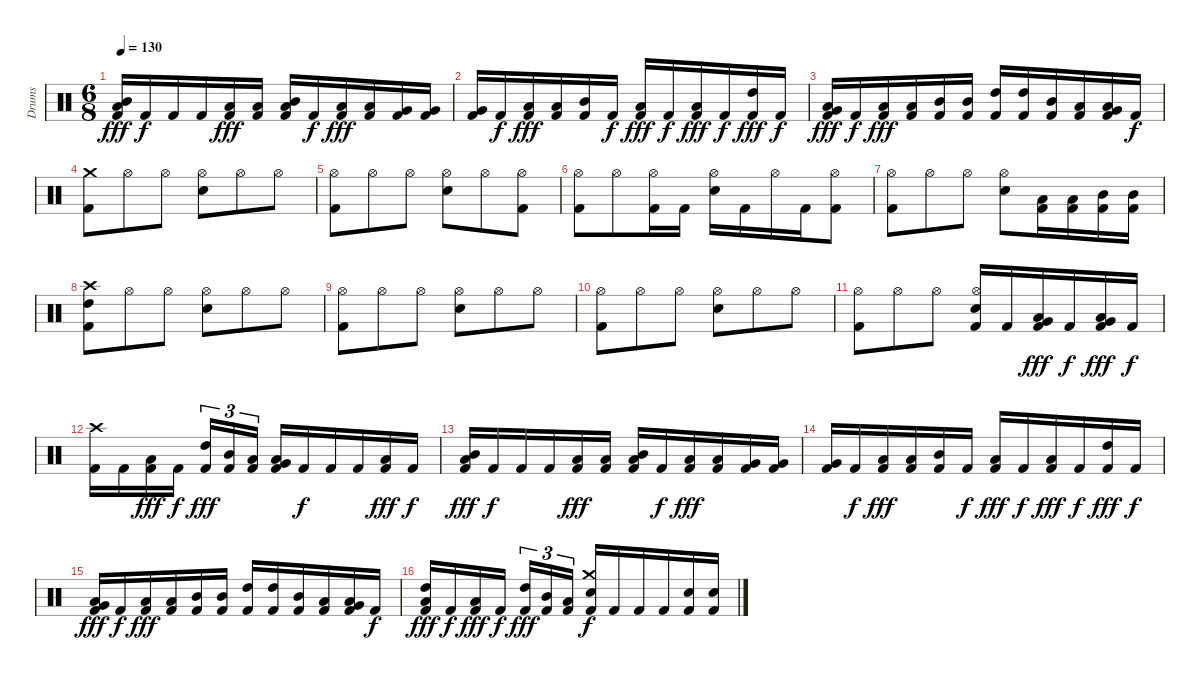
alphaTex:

\track ("Drums" "Drums") {instrument percussion}
\staff {score}
\articulation defaults
\ts (6 8)
\tempo 130
\clef neutral
\ks c
("Kick (hit) 2" "Low Floor Tom (hit)" "Mid Tom (hit)").16{dy fff} "Kick (hit) 2".16{dy f} "Kick (hit) 2".16 "Kick (hit) 2".16 ("Kick (hit) 2" "Low Tom (hit)").16{dy fff} ("Kick (hit) 2" "Low Tom (hit)").16 ("Kick (hit) 2" "Mid Tom (hit)" "Low Tom (hit)").16 "Kick (hit) 2".16{dy f} ("Kick (hit) 2" "Low Tom (hit)").16{dy fff} ("Kick (hit) 2" "Low Tom (hit)").16 ("Kick (hit) 2" "Very Low Tom (hit)").16 ("Kick (hit) 2" "Very Low Tom (hit)").16 |
("Kick (hit) 2" "Very Low Tom (hit)").16 "Kick (hit) 2".16{dy f} ("Kick (hit) 2" "Low Tom (hit)").16{dy fff} ("Kick (hit) 2" "Low Tom (hit)").16 ("Kick (hit) 2" "Mid Tom (hit)").16 "Kick (hit) 2".16{dy f} ("Kick (hit) 2" "Low Tom (hit)").16{dy fff} "Kick (hit) 2".16{dy f} ("Kick (hit) 2" "Low Tom (hit)").16{dy fff} "Kick (hit) 2".16{dy f} ("Kick (hit) 2" "High Tom (hit)").16{dy fff} "Kick (hit) 2".16{dy f} |
("Kick (hit) 2" "Very Low Tom (hit)" "Low Tom (hit)").16{dy fff} "Kick (hit) 2".16{dy f} ("Kick (hit) 2" "Low Tom (hit)").16{dy fff} ("Kick (hit) 2" "Low Tom (hit)").16 ("Kick (hit) 2" "Mid Tom (hit)").16 ("Kick (hit) 2" "Mid Tom (hit)").16 ("Kick (hit) 2" "High Tom (hit)").16 ("Kick (hit) 2" "High Tom (hit)").16 ("Kick (hit) 2" "Mid Tom (hit)").16 ("Kick (hit) 2" "Low Tom (hit)").16 ("Kick (hit) 2" "Very Low Tom (hit)" "Low Tom (hit)").16 "Kick (hit) 2".16{dy f} |
("Kick (hit) 2" "Crash medium (hit)").8 "Hi-Hat (open)".8 "Hi-Hat (open)".8 ("Electric Snare (hit)" "Hi-Hat (open)").8 "Hi-Hat (open)".8 "Hi-Hat (open)".8 |
("Kick (hit) 2" "Hi-Hat (open)").8 "Hi-Hat (open)".8 "Hi-Hat (open)".8 ("Electric Snare (hit)" "Hi-Hat (open)").8 "Hi-Hat (open)".8 ("Kick (hit) 2" "Hi-Hat (open)").8 |
("Kick (hit) 2" "Hi-Hat (open)").8 "Hi-Hat (open)".8 ("Kick (hit) 2" "Hi-Hat (open)").16 "Kick (hit) 2".16 ("Electric Snare (hit)" "Hi-Hat (open)").16 "Kick (hit) 2".16 "Hi-Hat (open)".16 "Kick (hit) 2".16 ("Kick (hit) 2" "Hi-Hat (open)").8 |
("Kick (hit) 2" "Hi-Hat (open)").8 "Hi-Hat (open)".8 "Hi-Hat (open)".8 ("Electric Snare (hit)" "Hi-Hat (open)").8 ("Kick (hit) 2" "Low Tom (hit)").16 ("Kick (hit) 2" "Low Tom (hit)").16 ("Kick (hit) 2" "Mid Tom (hit)").16 ("Kick (hit) 2" "Mid Tom (hit)").16 |
("Kick (hit) 2" "High Tom (hit)" "Crash high (hit)").8 "Hi-Hat (open)".8 "Hi-Hat (open)".8 ("Electric Snare (hit)" "Hi-Hat (open)").8 "Hi-Hat (open)".8 "Hi-Hat (open)".8 |
("Kick (hit) 2" "Hi-Hat (open)").8 "Hi-Hat (open)".8 "Hi-Hat (open)".8 ("Electric Snare (hit)" "Hi-Hat (open)").8 "Hi-Hat (open)".8 "Hi-Hat (open)".8 |
("Kick (hit) 2" "Hi-Hat (open)").8 "Hi-Hat (open)".8 "Hi-Hat (open)".8 ("Electric Snare (hit)" "Hi-Hat (open)").8 "Hi-Hat (open)".8 "Hi-Hat (open)".8 |
("Kick (hit) 2" "Hi-Hat (open)").8 "Hi-Hat (open)".8 "Hi-Hat (open)".8 ("Kick (hit) 2" "Electric Snare (hit)" "Hi-Hat (open)").16 "Kick (hit) 2".16 ("Kick (hit) 2" "Low Tom (hit)" "Very Low Tom (hit)").16{dy fff} "Kick (hit) 2".16{dy f} ("Kick (hit) 2" "Low Tom (hit)" "Very Low Tom (hit)").16{dy fff} "Kick (hit) 2".16{dy f} |
("Kick (hit) 2" "Crash high (hit)").16 "Kick (hit) 2".16 ("Kick (hit) 2" "Low Tom (hit)").16{dy fff} "Kick (hit) 2".16{dy f} ("Kick (hit) 2" "High Tom (hit)").16{tu (3 2) dy fff} ("Kick (hit) 2" "Mid Tom (hit)").16{tu (3 2)} ("Kick (hit) 2" "Low Tom (hit)").16{tu (3 2)} ("Kick (hit) 2" "Very Low Tom (hit)" "Low Tom (hit)").16 "Kick (hit) 2".16{dy f} "Kick (hit) 2".16 "Kick (hit) 2".16 ("Kick (hit) 2" "Low Tom (hit)").16{dy fff} "Kick (hit) 2".16{dy f} |
("Kick (hit) 2" "Low Floor Tom (hit)" "Mid Tom (hit)").16{dy fff} "Kick (hit) 2".16{dy f} "Kick (hit) 2".16 "Kick (hit) 2".16 ("Kick (hit) 2" "Low Tom (hit)").16{dy fff} ("Kick (hit) 2" "Low Tom (hit)").16 ("Kick (hit) 2" "Mid Tom (hit)" "Low Tom (hit)").16 "Kick (hit) 2".16{dy f} ("Kick (hit) 2" "Low Tom (hit)").16{dy fff} ("Kick (hit) 2" "Low Tom (hit)").16 ("Kick (hit) 2" "Very Low Tom (hit)").16 ("Kick (hit) 2" "Very Low Tom (hit)").16 |
("Kick (hit) 2" "Very Low Tom (hit)").16 "Kick (hit) 2".16{dy f} ("Kick (hit) 2" "Low Tom (hit)").16{dy fff} ("Kick (hit) 2" "Low Tom (hit)").16 ("Kick (hit) 2" "Mid Tom (hit)").16 "Kick (hit) 2".16{dy f} ("Kick (hit) 2" "Low Tom (hit)").16{dy fff} "Kick (hit) 2".16{dy f} ("Kick (hit) 2" "Low Tom (hit)").16{dy fff} "Kick (hit) 2".16{dy f} ("Kick (hit) 2" "High Tom (hit)").16{dy fff} "Kick (hit) 2".16{dy f} |
("Kick (hit) 2" "Very Low Tom (hit)" "Low Tom (hit)").16{dy fff} "Kick (hit) 2".16{dy f} ("Kick (hit) 2" "Low Tom (hit)").16{dy fff} ("Kick (hit) 2" "Low Tom (hit)").16 ("Kick (hit) 2" "Mid Tom (hit)").16 ("Kick (hit) 2" "Mid Tom (hit)").16 ("Kick (hit) 2" "High Tom (hit)").16 ("Kick (hit) 2" "High Tom (hit)").16 ("Kick (hit) 2" "Mid Tom (hit)").16 ("Kick (hit) 2" "Low Tom (hit)").16 ("Kick (hit) 2" "Very Low Tom (hit)" "Low Tom (hit)").16 "Kick (hit) 2".16{dy f} |
("Kick (hit) 2" "Low Tom (hit)" "High Tom (hit)").16{dy fff} "Kick (hit) 2".16{dy f} ("Kick (hit) 2" "Low Tom (hit)").16{dy fff} "Kick (hit) 2".16{dy f} ("Kick (hit) 2" "High Tom (hit)").16{tu (3 2) dy fff} ("Kick (hit) 2" "Mid Tom (hit)").16{tu (3 2)} ("Kick (hit) 2" "Low Tom (hit)").16{tu (3 2)} ("Kick (hit) 2" "Electric Snare (hit)" "Crash medium (hit)").16{dy f} "Kick (hit) 2".16 "Kick (hit) 2".16 "Kick (hit) 2".16 ("Kick (hit) 2" "Electric Snare (hit)").16 ("Kick (hit) 2" "Electric Snare (hit)").16
